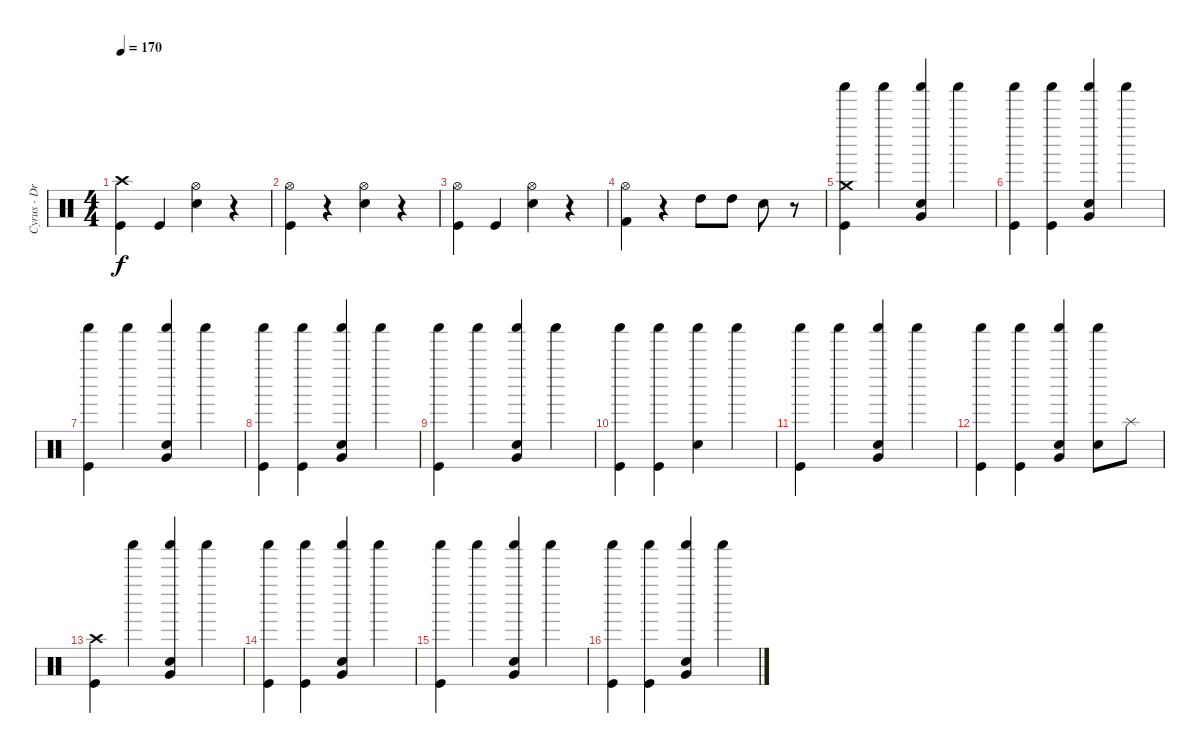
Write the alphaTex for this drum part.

\track ("Cyrus - Drums" "Cyrus - Dr") {instrument percussion}
\staff {score}
\articulation defaults
\ts (4 4)
\tempo 170
\clef neutral
\ks c
("Crash high (hit)" "Kick (hit)").4{dy f} "Kick (hit)".4 ("Hi-Hat (open)" "Electric Snare (hit)").4 r.4 |
("Hi-Hat (open)" "Kick (hit)").4 r.4 ("Hi-Hat (open)" "Electric Snare (hit)").4 r.4 |
("Hi-Hat (open)" "Kick (hit)").4 "Kick (hit)".4 ("Hi-Hat (open)" "Electric Snare (hit)").4 r.4 |
("Hi-Hat (open)" "Kick (hit) 2").4 r.4 "High Tom (hit)".8 "High Tom (hit)".8 "Electric Snare (hit)".8 r.8 |
("Shaker (hit)" "Crash medium (hit)" "Kick (hit)").4 "Shaker (hit)".4 ("Shaker (hit)" "Very Low Tom (hit)" "Electric Snare (hit)").4 "Shaker (hit)".4 |
("Shaker (hit)" "Kick (hit)").4 ("Shaker (hit)" "Kick (hit)").4 ("Shaker (hit)" "Electric Snare (hit)" "Very Low Tom (hit)").4 "Shaker (hit)".4 |
("Shaker (hit)" "Kick (hit)").4 "Shaker (hit)".4 ("Shaker (hit)" "Electric Snare (hit)" "Very Low Tom (hit)").4 "Shaker (hit)".4 |
("Shaker (hit)" "Kick (hit)").4 ("Shaker (hit)" "Kick (hit)").4 ("Shaker (hit)" "Electric Snare (hit)" "Very Low Tom (hit)").4 "Shaker (hit)".4 |
("Shaker (hit)" "Kick (hit)").4 "Shaker (hit)".4 ("Shaker (hit)" "Electric Snare (hit)" "Very Low Tom (hit)").4 "Shaker (hit)".4 |
("Shaker (hit)" "Kick (hit)").4 ("Shaker (hit)" "Kick (hit)").4 ("Shaker (hit)" "Electric Snare (hit)").4 "Shaker (hit)".4 |
("Shaker (hit)" "Kick (hit)").4 "Shaker (hit)".4 ("Shaker (hit)" "Electric Snare (hit)" "Very Low Tom (hit)").4 "Shaker (hit)".4 |
("Shaker (hit)" "Kick (hit)").4 ("Shaker (hit)" "Kick (hit)").4 ("Shaker (hit)" "Electric Snare (hit)" "Very Low Tom (hit)").4 ("Shaker (hit)" "Electric Snare (hit)").8 "Splash (hit)".8 |
("Crash high (hit)" "Kick (hit)").4 "Shaker (hit)".4 ("Shaker (hit)" "Electric Snare (hit)" "Very Low Tom (hit)").4 "Shaker (hit)".4 |
("Shaker (hit)" "Kick (hit)").4 ("Shaker (hit)" "Kick (hit)").4 ("Shaker (hit)" "Electric Snare (hit)" "Very Low Tom (hit)").4 "Shaker (hit)".4 |
("Shaker (hit)" "Kick (hit)").4 "Shaker (hit)".4 ("Shaker (hit)" "Electric Snare (hit)" "Very Low Tom (hit)").4 "Shaker (hit)".4 |
("Shaker (hit)" "Kick (hit)").4 ("Shaker (hit)" "Kick (hit)").4 ("Shaker (hit)" "Electric Snare (hit)" "Very Low Tom (hit)").4 "Shaker (hit)".4
